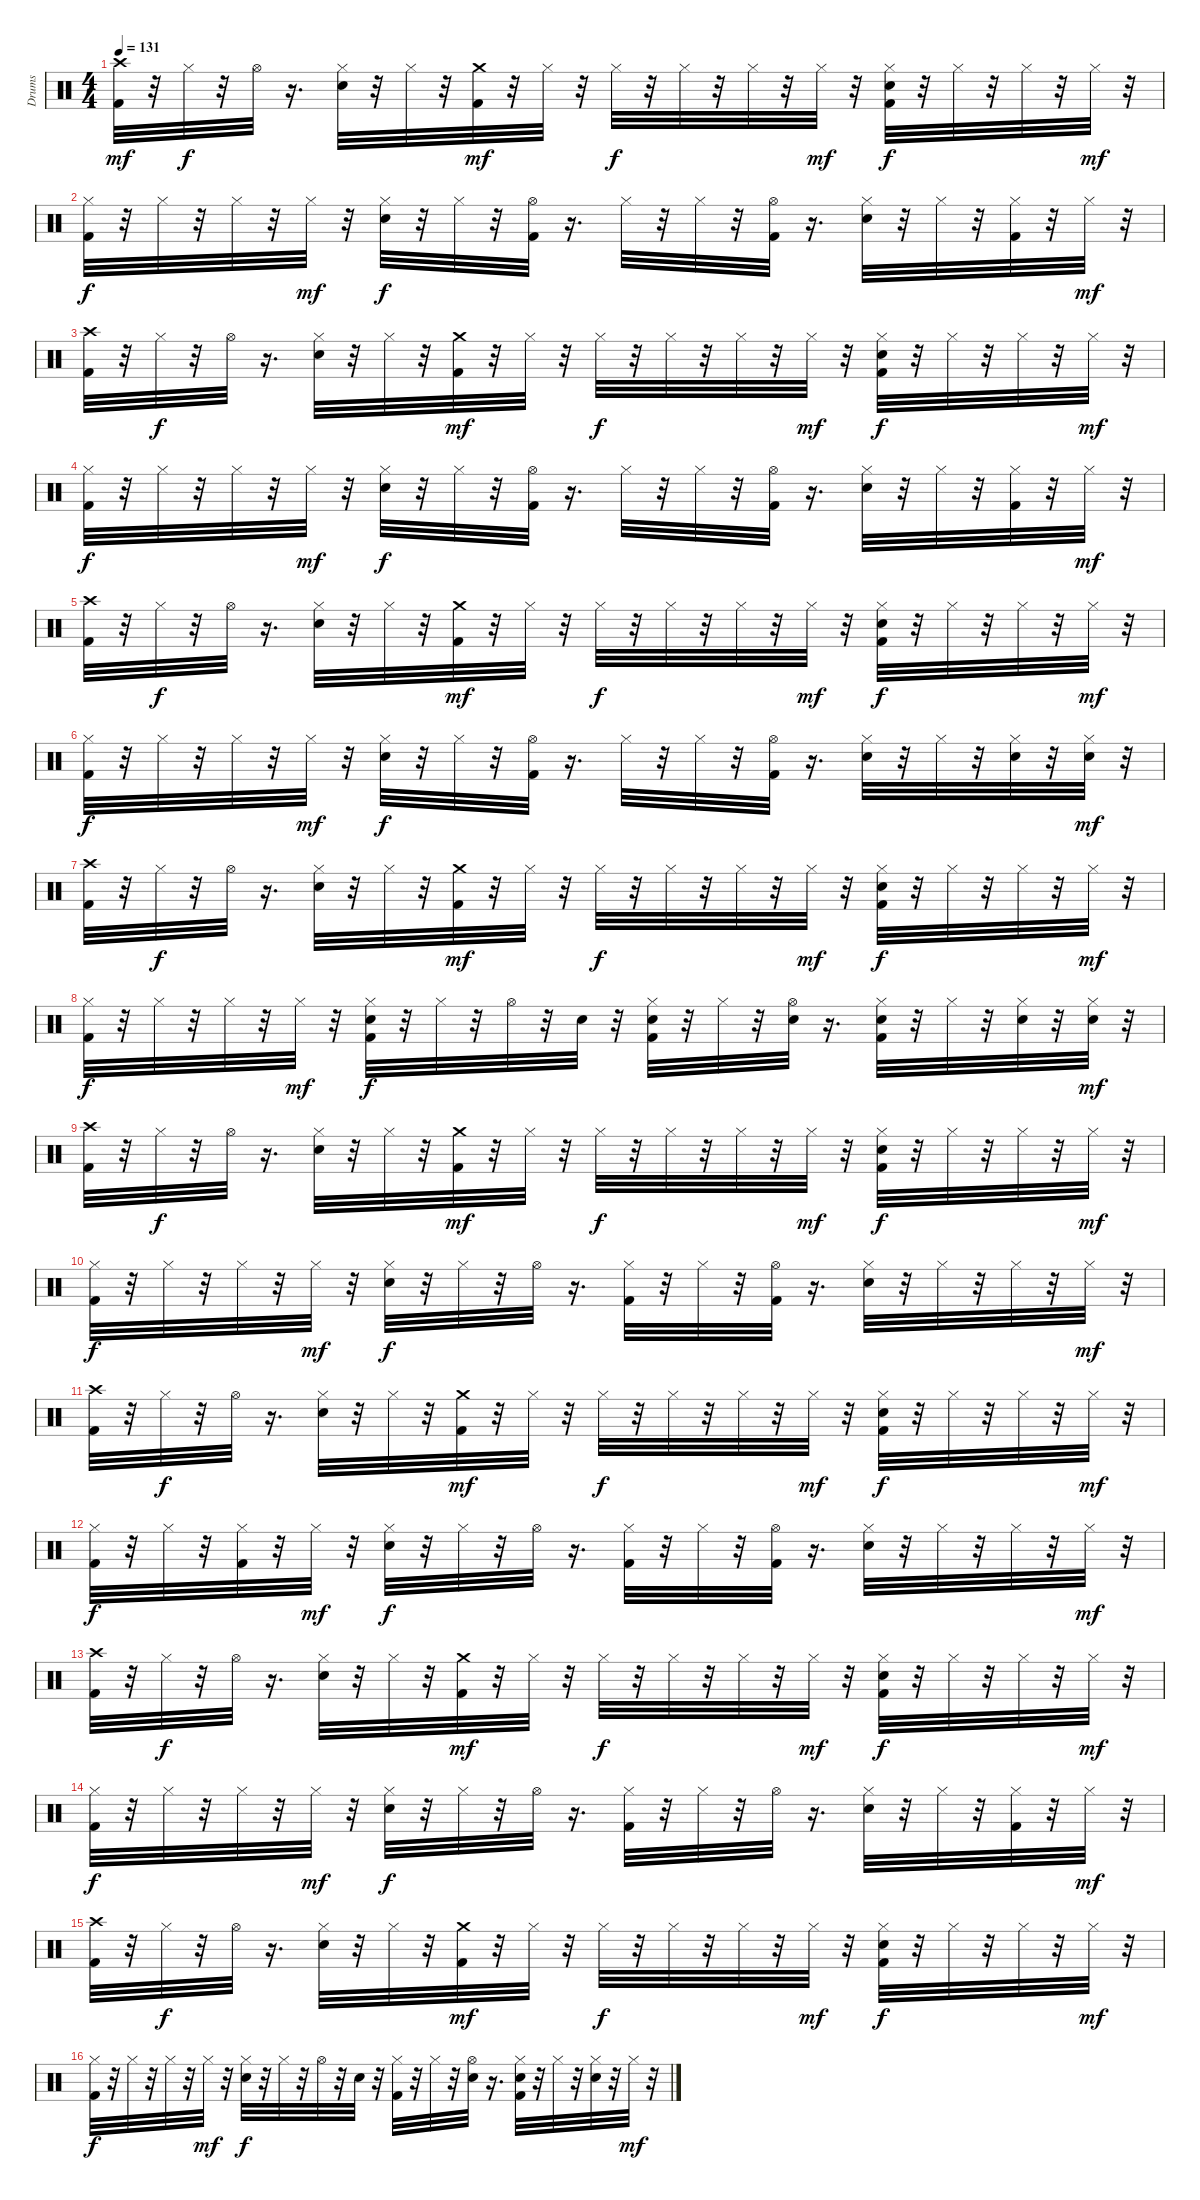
\track ("Drums" "Drums") {instrument percussion}
\staff {score}
\articulation defaults
\ts (4 4)
\tempo 131
\clef neutral
\ks c
("Kick (hit) 2" "Crash high (hit)").32{dy mf} r.32 "Hi-Hat (closed)".32{dy f} r.32 "Hi-Hat (open)".32 r.16{d} ("Snare (hit) 2" "Hi-Hat (closed)").32 r.32 "Hi-Hat (closed)".32 r.32 ("Crash medium (hit)" "Kick (hit) 2").32{dy mf} r.32 "Hi-Hat (closed)".32 r.32 "Hi-Hat (closed)".32{dy f} r.32 "Hi-Hat (closed)".32 r.32 "Hi-Hat (closed)".32 r.32 "Hi-Hat (closed)".32{dy mf} r.32 ("Snare (hit) 2" "Hi-Hat (closed)" "Kick (hit) 2").32{dy f} r.32 "Hi-Hat (closed)".32 r.32 "Hi-Hat (closed)".32 r.32 "Hi-Hat (closed)".32{dy mf} r.32 |
("Kick (hit) 2" "Hi-Hat (closed)").32{dy f} r.32 "Hi-Hat (closed)".32 r.32 "Hi-Hat (closed)".32 r.32 "Hi-Hat (closed)".32{dy mf} r.32 ("Hi-Hat (closed)" "Snare (hit) 2").32{dy f} r.32 "Hi-Hat (closed)".32 r.32 ("Kick (hit) 2" "Hi-Hat (open)").32 r.16{d} "Hi-Hat (closed)".32 r.32 "Hi-Hat (closed)".32 r.32 ("Hi-Hat (open)" "Kick (hit) 2").32 r.16{d} ("Hi-Hat (closed)" "Snare (hit) 2").32 r.32 "Hi-Hat (closed)".32 r.32 ("Hi-Hat (closed)" "Kick (hit) 2").32 r.32 "Hi-Hat (closed)".32{dy mf} r.32 |
("Kick (hit) 2" "Crash high (hit)").32 r.32 "Hi-Hat (closed)".32{dy f} r.32 "Hi-Hat (open)".32 r.16{d} ("Snare (hit) 2" "Hi-Hat (closed)").32 r.32 "Hi-Hat (closed)".32 r.32 ("Crash medium (hit)" "Kick (hit) 2").32{dy mf} r.32 "Hi-Hat (closed)".32 r.32 "Hi-Hat (closed)".32{dy f} r.32 "Hi-Hat (closed)".32 r.32 "Hi-Hat (closed)".32 r.32 "Hi-Hat (closed)".32{dy mf} r.32 ("Snare (hit) 2" "Hi-Hat (closed)" "Kick (hit) 2").32{dy f} r.32 "Hi-Hat (closed)".32 r.32 "Hi-Hat (closed)".32 r.32 "Hi-Hat (closed)".32{dy mf} r.32 |
("Kick (hit) 2" "Hi-Hat (closed)").32{dy f} r.32 "Hi-Hat (closed)".32 r.32 "Hi-Hat (closed)".32 r.32 "Hi-Hat (closed)".32{dy mf} r.32 ("Hi-Hat (closed)" "Snare (hit) 2").32{dy f} r.32 "Hi-Hat (closed)".32 r.32 ("Kick (hit) 2" "Hi-Hat (open)").32 r.16{d} "Hi-Hat (closed)".32 r.32 "Hi-Hat (closed)".32 r.32 ("Hi-Hat (open)" "Kick (hit) 2").32 r.16{d} ("Hi-Hat (closed)" "Snare (hit) 2").32 r.32 "Hi-Hat (closed)".32 r.32 ("Hi-Hat (closed)" "Kick (hit) 2").32 r.32 "Hi-Hat (closed)".32{dy mf} r.32 |
("Kick (hit) 2" "Crash high (hit)").32 r.32 "Hi-Hat (closed)".32{dy f} r.32 "Hi-Hat (open)".32 r.16{d} ("Snare (hit) 2" "Hi-Hat (closed)").32 r.32 "Hi-Hat (closed)".32 r.32 ("Crash medium (hit)" "Kick (hit) 2").32{dy mf} r.32 "Hi-Hat (closed)".32 r.32 "Hi-Hat (closed)".32{dy f} r.32 "Hi-Hat (closed)".32 r.32 "Hi-Hat (closed)".32 r.32 "Hi-Hat (closed)".32{dy mf} r.32 ("Snare (hit) 2" "Hi-Hat (closed)" "Kick (hit) 2").32{dy f} r.32 "Hi-Hat (closed)".32 r.32 "Hi-Hat (closed)".32 r.32 "Hi-Hat (closed)".32{dy mf} r.32 |
("Kick (hit) 2" "Hi-Hat (closed)").32{dy f} r.32 "Hi-Hat (closed)".32 r.32 "Hi-Hat (closed)".32 r.32 "Hi-Hat (closed)".32{dy mf} r.32 ("Hi-Hat (closed)" "Snare (hit) 2").32{dy f} r.32 "Hi-Hat (closed)".32 r.32 ("Hi-Hat (open)" "Kick (hit) 2").32 r.16{d} "Hi-Hat (closed)".32 r.32 "Hi-Hat (closed)".32 r.32 ("Hi-Hat (open)" "Kick (hit) 2").32 r.16{d} ("Hi-Hat (closed)" "Snare (hit) 2").32 r.32 "Hi-Hat (closed)".32 r.32 ("Hi-Hat (closed)" "Snare (hit) 2").32 r.32 ("Snare (hit) 2" "Hi-Hat (closed)").32{dy mf} r.32 |
("Kick (hit) 2" "Crash high (hit)").32 r.32 "Hi-Hat (closed)".32{dy f} r.32 "Hi-Hat (open)".32 r.16{d} ("Snare (hit) 2" "Hi-Hat (closed)").32 r.32 "Hi-Hat (closed)".32 r.32 ("Crash medium (hit)" "Kick (hit) 2").32{dy mf} r.32 "Hi-Hat (closed)".32 r.32 "Hi-Hat (closed)".32{dy f} r.32 "Hi-Hat (closed)".32 r.32 "Hi-Hat (closed)".32 r.32 "Hi-Hat (closed)".32{dy mf} r.32 ("Snare (hit) 2" "Hi-Hat (closed)" "Kick (hit) 2").32{dy f} r.32 "Hi-Hat (closed)".32 r.32 "Hi-Hat (closed)".32 r.32 "Hi-Hat (closed)".32{dy mf} r.32 |
("Hi-Hat (closed)" "Kick (hit) 2").32{dy f} r.32 "Hi-Hat (closed)".32 r.32 "Hi-Hat (closed)".32 r.32 "Hi-Hat (closed)".32{dy mf} r.32 ("Hi-Hat (closed)" "Kick (hit) 2" "Snare (hit) 2").32{dy f} r.32 "Hi-Hat (closed)".32 r.32 "Hi-Hat (open)".32 r.32 "Snare (hit) 2".32 r.32 ("Snare (hit) 2" "Hi-Hat (closed)" "Kick (hit) 2").32 r.32 "Hi-Hat (closed)".32 r.32 ("Hi-Hat (open)" "Snare (hit) 2").32 r.16{d} ("Snare (hit) 2" "Hi-Hat (closed)" "Kick (hit) 2").32 r.32 "Hi-Hat (closed)".32 r.32 ("Snare (hit) 2" "Hi-Hat (closed)").32 r.32 ("Snare (hit) 2" "Hi-Hat (closed)").32{dy mf} r.32 |
("Kick (hit) 2" "Crash high (hit)").32 r.32 "Hi-Hat (closed)".32{dy f} r.32 "Hi-Hat (open)".32 r.16{d} ("Snare (hit) 2" "Hi-Hat (closed)").32 r.32 "Hi-Hat (closed)".32 r.32 ("Crash medium (hit)" "Kick (hit) 2").32{dy mf} r.32 "Hi-Hat (closed)".32 r.32 "Hi-Hat (closed)".32{dy f} r.32 "Hi-Hat (closed)".32 r.32 "Hi-Hat (closed)".32 r.32 "Hi-Hat (closed)".32{dy mf} r.32 ("Snare (hit) 2" "Hi-Hat (closed)" "Kick (hit) 2").32{dy f} r.32 "Hi-Hat (closed)".32 r.32 "Hi-Hat (closed)".32 r.32 "Hi-Hat (closed)".32{dy mf} r.32 |
("Kick (hit) 2" "Hi-Hat (closed)").32{dy f} r.32 "Hi-Hat (closed)".32 r.32 "Hi-Hat (closed)".32 r.32 "Hi-Hat (closed)".32{dy mf} r.32 ("Hi-Hat (closed)" "Snare (hit) 2").32{dy f} r.32 "Hi-Hat (closed)".32 r.32 "Hi-Hat (open)".32 r.16{d} ("Hi-Hat (closed)" "Kick (hit) 2").32 r.32 "Hi-Hat (closed)".32 r.32 ("Hi-Hat (open)" "Kick (hit) 2").32 r.16{d} ("Hi-Hat (closed)" "Snare (hit) 2").32 r.32 "Hi-Hat (closed)".32 r.32 "Hi-Hat (closed)".32 r.32 "Hi-Hat (closed)".32{dy mf} r.32 |
("Kick (hit) 2" "Crash high (hit)").32 r.32 "Hi-Hat (closed)".32{dy f} r.32 "Hi-Hat (open)".32 r.16{d} ("Snare (hit) 2" "Hi-Hat (closed)").32 r.32 "Hi-Hat (closed)".32 r.32 ("Crash medium (hit)" "Kick (hit) 2").32{dy mf} r.32 "Hi-Hat (closed)".32 r.32 "Hi-Hat (closed)".32{dy f} r.32 "Hi-Hat (closed)".32 r.32 "Hi-Hat (closed)".32 r.32 "Hi-Hat (closed)".32{dy mf} r.32 ("Snare (hit) 2" "Hi-Hat (closed)" "Kick (hit) 2").32{dy f} r.32 "Hi-Hat (closed)".32 r.32 "Hi-Hat (closed)".32 r.32 "Hi-Hat (closed)".32{dy mf} r.32 |
("Kick (hit) 2" "Hi-Hat (closed)").32{dy f} r.32 "Hi-Hat (closed)".32 r.32 ("Hi-Hat (closed)" "Kick (hit) 2").32 r.32 "Hi-Hat (closed)".32{dy mf} r.32 ("Hi-Hat (closed)" "Snare (hit) 2").32{dy f} r.32 "Hi-Hat (closed)".32 r.32 "Hi-Hat (open)".32 r.16{d} ("Hi-Hat (closed)" "Kick (hit) 2").32 r.32 "Hi-Hat (closed)".32 r.32 ("Hi-Hat (open)" "Kick (hit) 2").32 r.16{d} ("Hi-Hat (closed)" "Snare (hit) 2").32 r.32 "Hi-Hat (closed)".32 r.32 "Hi-Hat (closed)".32 r.32 "Hi-Hat (closed)".32{dy mf} r.32 |
("Kick (hit) 2" "Crash high (hit)").32 r.32 "Hi-Hat (closed)".32{dy f} r.32 "Hi-Hat (open)".32 r.16{d} ("Snare (hit) 2" "Hi-Hat (closed)").32 r.32 "Hi-Hat (closed)".32 r.32 ("Crash medium (hit)" "Kick (hit) 2").32{dy mf} r.32 "Hi-Hat (closed)".32 r.32 "Hi-Hat (closed)".32{dy f} r.32 "Hi-Hat (closed)".32 r.32 "Hi-Hat (closed)".32 r.32 "Hi-Hat (closed)".32{dy mf} r.32 ("Snare (hit) 2" "Hi-Hat (closed)" "Kick (hit) 2").32{dy f} r.32 "Hi-Hat (closed)".32 r.32 "Hi-Hat (closed)".32 r.32 "Hi-Hat (closed)".32{dy mf} r.32 |
("Kick (hit) 2" "Hi-Hat (closed)").32{dy f} r.32 "Hi-Hat (closed)".32 r.32 "Hi-Hat (closed)".32 r.32 "Hi-Hat (closed)".32{dy mf} r.32 ("Hi-Hat (closed)" "Snare (hit) 2").32{dy f} r.32 "Hi-Hat (closed)".32 r.32 "Hi-Hat (open)".32 r.16{d} ("Hi-Hat (closed)" "Kick (hit) 2").32 r.32 "Hi-Hat (closed)".32 r.32 "Hi-Hat (open)".32 r.16{d} ("Hi-Hat (closed)" "Snare (hit) 2").32 r.32 "Hi-Hat (closed)".32 r.32 ("Hi-Hat (closed)" "Kick (hit) 2").32 r.32 "Hi-Hat (closed)".32{dy mf} r.32 |
("Kick (hit) 2" "Crash high (hit)").32 r.32 "Hi-Hat (closed)".32{dy f} r.32 "Hi-Hat (open)".32 r.16{d} ("Snare (hit) 2" "Hi-Hat (closed)").32 r.32 "Hi-Hat (closed)".32 r.32 ("Crash medium (hit)" "Kick (hit) 2").32{dy mf} r.32 "Hi-Hat (closed)".32 r.32 "Hi-Hat (closed)".32{dy f} r.32 "Hi-Hat (closed)".32 r.32 "Hi-Hat (closed)".32 r.32 "Hi-Hat (closed)".32{dy mf} r.32 ("Snare (hit) 2" "Hi-Hat (closed)" "Kick (hit) 2").32{dy f} r.32 "Hi-Hat (closed)".32 r.32 "Hi-Hat (closed)".32 r.32 "Hi-Hat (closed)".32{dy mf} r.32 |
("Kick (hit) 2" "Hi-Hat (closed)").32{dy f} r.32 "Hi-Hat (closed)".32 r.32 "Hi-Hat (closed)".32 r.32 "Hi-Hat (closed)".32{dy mf} r.32 ("Hi-Hat (closed)" "Snare (hit) 2").32{dy f} r.32 "Hi-Hat (closed)".32 r.32 "Hi-Hat (open)".32 r.32 "Snare (hit) 2".32 r.32 ("Hi-Hat (closed)" "Kick (hit) 2").32 r.32 "Hi-Hat (closed)".32 r.32 ("Snare (hit) 2" "Hi-Hat (open)").32 r.16{d} ("Hi-Hat (closed)" "Kick (hit) 2" "Snare (hit) 2").32 r.32 "Hi-Hat (closed)".32 r.32 ("Snare (hit) 2" "Hi-Hat (closed)").32 r.32 "Hi-Hat (closed)".32{dy mf} r.32
